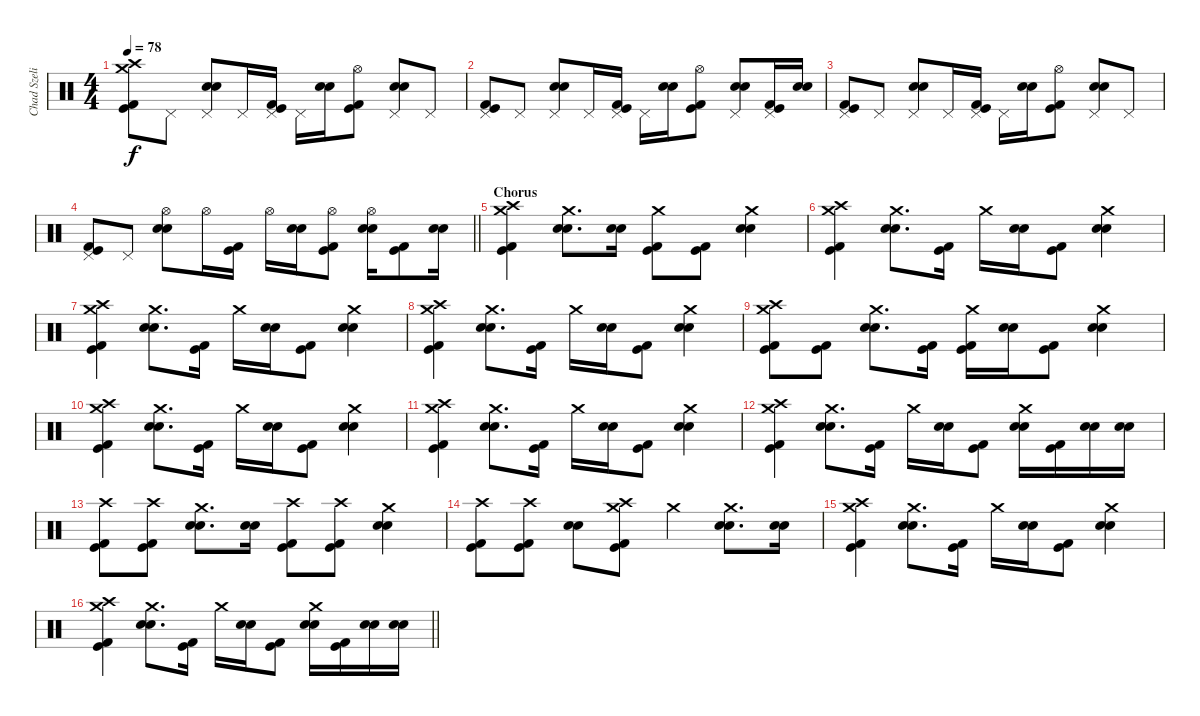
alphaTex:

\track ("Chad Szeliga" "Chad Szeli") {instrument percussion}
\staff {score}
\articulation defaults
\ts (4 4)
\tempo 78
\clef neutral
\ks c
("Crash high (hit)" "Kick (hit) 2" "Kick (hit)" "Crash medium (hit)").8{dy f} "Pedal Hi-Hat (hit)".8 ("Snare (hit) 2" "Snare (hit) 2" "Pedal Hi-Hat (hit)").8 "Pedal Hi-Hat (hit)".16 ("Kick (hit) 2" "Kick (hit)" "Pedal Hi-Hat (hit)").16 "Pedal Hi-Hat (hit)".16 ("Snare (hit) 2" "Snare (hit) 2").16 ("Kick (hit) 2" "Kick (hit)" "Hi-Hat (open)").8 ("Snare (hit) 2" "Snare (hit) 2" "Pedal Hi-Hat (hit)").8 "Pedal Hi-Hat (hit)".8 |
("Kick (hit) 2" "Kick (hit)" "Pedal Hi-Hat (hit)").8 "Pedal Hi-Hat (hit)".8 ("Snare (hit) 2" "Snare (hit) 2" "Pedal Hi-Hat (hit)").8 "Pedal Hi-Hat (hit)".16 ("Kick (hit) 2" "Kick (hit)" "Pedal Hi-Hat (hit)").16 "Pedal Hi-Hat (hit)".16 ("Snare (hit) 2" "Snare (hit) 2").16 ("Kick (hit) 2" "Kick (hit)" "Hi-Hat (open)").8 ("Snare (hit) 2" "Snare (hit) 2" "Pedal Hi-Hat (hit)").8 ("Kick (hit) 2" "Kick (hit)" "Pedal Hi-Hat (hit)").16 ("Snare (hit) 2" "Snare (hit) 2").16 |
("Kick (hit) 2" "Kick (hit)" "Pedal Hi-Hat (hit)").8 "Pedal Hi-Hat (hit)".8 ("Snare (hit) 2" "Snare (hit) 2" "Pedal Hi-Hat (hit)").8 "Pedal Hi-Hat (hit)".16 ("Kick (hit) 2" "Kick (hit)" "Pedal Hi-Hat (hit)").16 "Pedal Hi-Hat (hit)".16 ("Snare (hit) 2" "Snare (hit) 2").16 ("Kick (hit) 2" "Kick (hit)" "Hi-Hat (open)").8 ("Snare (hit) 2" "Snare (hit) 2" "Pedal Hi-Hat (hit)").8 "Pedal Hi-Hat (hit)".8 |
\barLineRight lightlight
("Kick (hit) 2" "Kick (hit)" "Pedal Hi-Hat (hit)").8 "Pedal Hi-Hat (hit)".8 ("Snare (hit) 2" "Snare (hit) 2" "Hi-Hat (open)").8 "Hi-Hat (open)".16 ("Kick (hit) 2" "Kick (hit)").16 "Hi-Hat (open)".16 ("Snare (hit) 2" "Snare (hit) 2").16 ("Kick (hit) 2" "Kick (hit)" "Hi-Hat (open)").8 ("Snare (hit) 2" "Snare (hit) 2" "Hi-Hat (open)").16 ("Kick (hit) 2" "Kick (hit)").8 ("Snare (hit) 2" "Snare (hit) 2").16 |
\section ("" "Chorus")
("Crash high (hit)" "Kick (hit) 2" "Kick (hit)" "Crash medium (hit)").4 ("Crash medium (hit)" "Snare (hit) 2" "Snare (hit) 2").8{d} ("Snare (hit) 2" "Snare (hit) 2").16 ("Crash medium (hit)" "Kick (hit) 2" "Kick (hit)").8 ("Kick (hit) 2" "Kick (hit)").8 ("Crash medium (hit)" "Snare (hit) 2" "Snare (hit) 2").4 |
("Crash high (hit)" "Kick (hit) 2" "Kick (hit)" "Crash medium (hit)").4 ("Crash medium (hit)" "Snare (hit) 2" "Snare (hit) 2").8{d} ("Kick (hit) 2" "Kick (hit)").16 "Crash medium (hit)".16 ("Snare (hit) 2" "Snare (hit) 2").16 ("Kick (hit) 2" "Kick (hit)").8 ("Crash medium (hit)" "Snare (hit) 2" "Snare (hit) 2").4 |
("Crash high (hit)" "Kick (hit) 2" "Kick (hit)" "Crash medium (hit)").4 ("Crash medium (hit)" "Snare (hit) 2" "Snare (hit) 2").8{d} ("Kick (hit) 2" "Kick (hit)").16 "Crash medium (hit)".16 ("Snare (hit) 2" "Snare (hit) 2").16 ("Kick (hit) 2" "Kick (hit)").8 ("Crash medium (hit)" "Snare (hit) 2" "Snare (hit) 2").4 |
("Crash high (hit)" "Kick (hit) 2" "Kick (hit)" "Crash medium (hit)").4 ("Crash medium (hit)" "Snare (hit) 2" "Snare (hit) 2").8{d} ("Kick (hit) 2" "Kick (hit)").16 "Crash medium (hit)".16 ("Snare (hit) 2" "Snare (hit) 2").16 ("Kick (hit) 2" "Kick (hit)").8 ("Crash medium (hit)" "Snare (hit) 2" "Snare (hit) 2").4 |
("Crash high (hit)" "Kick (hit) 2" "Kick (hit)" "Crash medium (hit)").8 ("Kick (hit) 2" "Kick (hit)").8 ("Crash medium (hit)" "Snare (hit) 2" "Snare (hit) 2").8{d} ("Kick (hit) 2" "Kick (hit)").16 ("Crash medium (hit)" "Kick (hit) 2" "Kick (hit)").16 ("Snare (hit) 2" "Snare (hit) 2").16 ("Kick (hit) 2" "Kick (hit)").8 ("Crash medium (hit)" "Snare (hit) 2" "Snare (hit) 2").4 |
("Crash high (hit)" "Kick (hit) 2" "Kick (hit)" "Crash medium (hit)").4 ("Crash medium (hit)" "Snare (hit) 2" "Snare (hit) 2").8{d} ("Kick (hit) 2" "Kick (hit)").16 "Crash medium (hit)".16 ("Snare (hit) 2" "Snare (hit) 2").16 ("Kick (hit) 2" "Kick (hit)").8 ("Crash medium (hit)" "Snare (hit) 2" "Snare (hit) 2").4 |
("Crash high (hit)" "Kick (hit) 2" "Kick (hit)" "Crash medium (hit)").4 ("Crash medium (hit)" "Snare (hit) 2" "Snare (hit) 2").8{d} ("Kick (hit) 2" "Kick (hit)").16 "Crash medium (hit)".16 ("Snare (hit) 2" "Snare (hit) 2").16 ("Kick (hit) 2" "Kick (hit)").8 ("Crash medium (hit)" "Snare (hit) 2" "Snare (hit) 2").4 |
("Crash high (hit)" "Kick (hit) 2" "Kick (hit)" "Crash medium (hit)").4 ("Crash medium (hit)" "Snare (hit) 2" "Snare (hit) 2").8{d} ("Kick (hit) 2" "Kick (hit)").16 "Crash medium (hit)".16 ("Snare (hit) 2" "Snare (hit) 2").16 ("Kick (hit) 2" "Kick (hit)").8 ("Crash medium (hit)" "Snare (hit) 2" "Snare (hit) 2").16 ("Kick (hit) 2" "Kick (hit)").16 ("Snare (hit) 2" "Snare (hit) 2").16 ("Snare (hit) 2" "Snare (hit) 2").16 |
("Crash high (hit)" "Kick (hit) 2" "Kick (hit)").8 ("Crash high (hit)" "Kick (hit) 2" "Kick (hit)").8 ("Crash medium (hit)" "Snare (hit) 2" "Snare (hit) 2").8{d} ("Snare (hit) 2" "Snare (hit) 2").16 ("Crash high (hit)" "Kick (hit) 2" "Kick (hit)").8 ("Crash high (hit)" "Kick (hit) 2" "Kick (hit)").8 ("Crash medium (hit)" "Snare (hit) 2" "Snare (hit) 2").4 |
("Crash high (hit)" "Kick (hit) 2" "Kick (hit)").8 ("Crash high (hit)" "Kick (hit) 2" "Kick (hit)").8 ("Snare (hit) 2" "Snare (hit) 2").8 ("Crash high (hit)" "Kick (hit) 2" "Kick (hit)" "Crash medium (hit)").8 "Crash medium (hit)".4 ("Crash medium (hit)" "Snare (hit) 2" "Snare (hit) 2").8{d} ("Snare (hit) 2" "Snare (hit) 2").16 |
("Crash high (hit)" "Kick (hit) 2" "Kick (hit)" "Crash medium (hit)").4 ("Crash medium (hit)" "Snare (hit) 2" "Snare (hit) 2").8{d} ("Kick (hit) 2" "Kick (hit)").16 "Crash medium (hit)".16 ("Snare (hit) 2" "Snare (hit) 2").16 ("Kick (hit) 2" "Kick (hit)").8 ("Crash medium (hit)" "Snare (hit) 2" "Snare (hit) 2").4 |
\barLineRight lightlight
("Crash high (hit)" "Kick (hit) 2" "Kick (hit)" "Crash medium (hit)").4 ("Crash medium (hit)" "Snare (hit) 2" "Snare (hit) 2").8{d} ("Kick (hit) 2" "Kick (hit)").16 "Crash medium (hit)".16 ("Snare (hit) 2" "Snare (hit) 2").16 ("Kick (hit) 2" "Kick (hit)").8 ("Crash medium (hit)" "Snare (hit) 2" "Snare (hit) 2").16 ("Kick (hit) 2" "Kick (hit)").16 ("Snare (hit) 2" "Snare (hit) 2").16 ("Snare (hit) 2" "Snare (hit) 2").16
